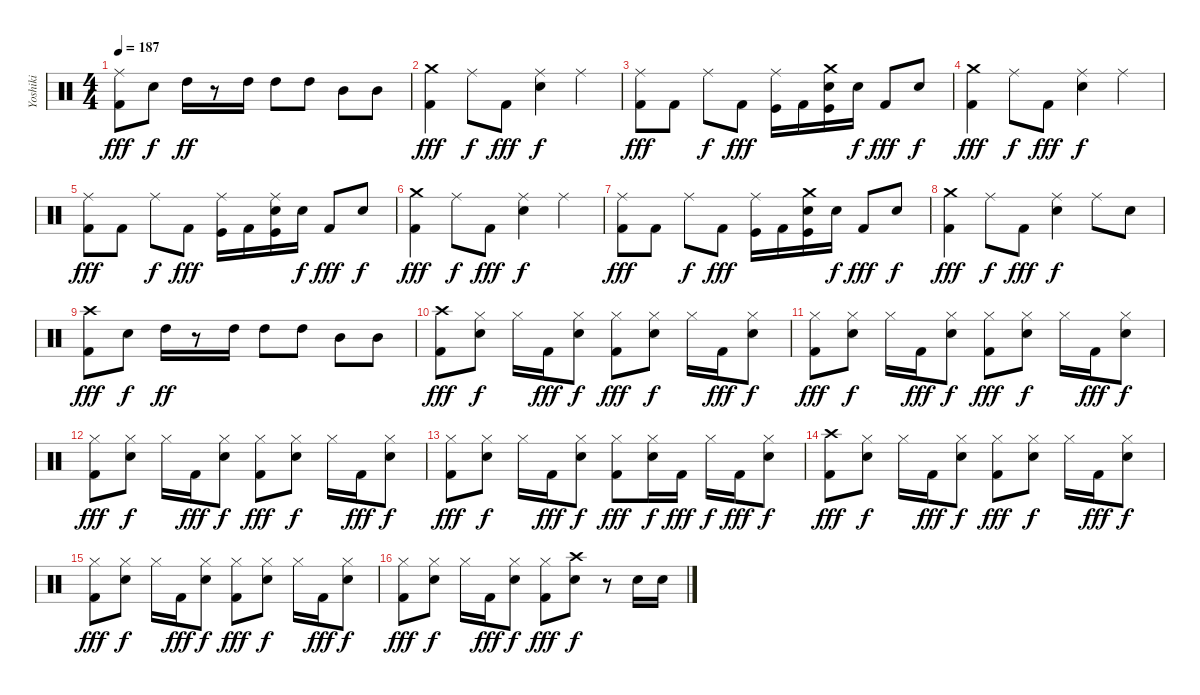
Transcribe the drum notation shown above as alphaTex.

\track ("Yoshiki" "Yoshiki") {instrument percussion}
\staff {score}
\articulation defaults
\ts (4 4)
\tempo 187
\clef neutral
\ks c
("Ride (middle)" "Kick (hit) 2").8{dy fff} "Electric Snare (hit)".8{dy f} "High Tom (hit)".16{dy ff} r.8 "High Tom (hit)".16 "High Tom (hit)".8 "High Tom (hit)".8 "Mid Tom (hit)".8 "Mid Tom (hit)".8 |
("Crash medium (hit)" "Kick (hit) 2").4{dy fff} "Ride (middle)".8{dy f} "Kick (hit) 2".8{dy fff} ("Ride (middle)" "Electric Snare (hit)").4{dy f} "Ride (middle)".4 |
("Ride (middle)" "Kick (hit) 2").8{dy fff} "Kick (hit) 2".8 "Ride (middle)".8{dy f} "Kick (hit) 2".8{dy fff} ("Ride (middle)" "Kick (hit)").16 "Kick (hit) 2".16 ("Crash medium (hit)" "Electric Snare (hit)" "Kick (hit)").16 "Electric Snare (hit)".16{dy f} "Kick (hit) 2".8{dy fff} "Electric Snare (hit)".8{dy f} |
("Crash medium (hit)" "Kick (hit) 2").4{dy fff} "Ride (middle)".8{dy f} "Kick (hit) 2".8{dy fff} ("Ride (middle)" "Electric Snare (hit)").4{dy f} "Ride (middle)".4 |
("Ride (middle)" "Kick (hit) 2").8{dy fff} "Kick (hit) 2".8 "Ride (middle)".8{dy f} "Kick (hit) 2".8{dy fff} ("Ride (middle)" "Kick (hit)").16 "Kick (hit) 2".16 ("Ride (middle)" "Electric Snare (hit)" "Kick (hit)").16 "Electric Snare (hit)".16{dy f} "Kick (hit) 2".8{dy fff} "Electric Snare (hit)".8{dy f} |
("Crash medium (hit)" "Kick (hit) 2").4{dy fff} "Ride (middle)".8{dy f} "Kick (hit) 2".8{dy fff} ("Ride (middle)" "Electric Snare (hit)").4{dy f} "Ride (middle)".4 |
("Ride (middle)" "Kick (hit) 2").8{dy fff} "Kick (hit) 2".8 "Ride (middle)".8{dy f} "Kick (hit) 2".8{dy fff} ("Ride (middle)" "Kick (hit)").16 "Kick (hit) 2".16 ("Crash medium (hit)" "Electric Snare (hit)" "Kick (hit)").16 "Electric Snare (hit)".16{dy f} "Kick (hit) 2".8{dy fff} "Electric Snare (hit)".8{dy f} |
("Crash medium (hit)" "Kick (hit) 2").4{dy fff} "Ride (middle)".8{dy f} "Kick (hit) 2".8{dy fff} ("Ride (middle)" "Electric Snare (hit)").4{dy f} "Ride (middle)".8 "Electric Snare (hit)".8 |
("Crash high (hit)" "Kick (hit) 2").8{dy fff} "Electric Snare (hit)".8{dy f} "High Tom (hit)".16{dy ff} r.8 "High Tom (hit)".16 "High Tom (hit)".8 "High Tom (hit)".8 "Mid Tom (hit)".8 "Mid Tom (hit)".8 |
("Crash high (hit)" "Kick (hit) 2").8{dy fff} ("Hi-Hat (closed)" "Electric Snare (hit)").8{dy f} "Hi-Hat (closed)".16 "Kick (hit) 2".16{dy fff} ("Hi-Hat (closed)" "Electric Snare (hit)").8{dy f} ("Hi-Hat (closed)" "Kick (hit) 2").8{dy fff} ("Hi-Hat (closed)" "Electric Snare (hit)").8{dy f} "Hi-Hat (closed)".16 "Kick (hit) 2".16{dy fff} ("Hi-Hat (closed)" "Electric Snare (hit)").8{dy f} |
("Hi-Hat (closed)" "Kick (hit) 2").8{dy fff} ("Hi-Hat (closed)" "Electric Snare (hit)").8{dy f} "Hi-Hat (closed)".16 "Kick (hit) 2".16{dy fff} ("Hi-Hat (closed)" "Electric Snare (hit)").8{dy f} ("Hi-Hat (closed)" "Kick (hit) 2").8{dy fff} ("Hi-Hat (closed)" "Electric Snare (hit)").8{dy f} "Hi-Hat (closed)".16 "Kick (hit) 2".16{dy fff} ("Hi-Hat (closed)" "Electric Snare (hit)").8{dy f} |
("Hi-Hat (closed)" "Kick (hit) 2").8{dy fff} ("Hi-Hat (closed)" "Electric Snare (hit)").8{dy f} "Hi-Hat (closed)".16 "Kick (hit) 2".16{dy fff} ("Hi-Hat (closed)" "Electric Snare (hit)").8{dy f} ("Hi-Hat (closed)" "Kick (hit) 2").8{dy fff} ("Hi-Hat (closed)" "Electric Snare (hit)").8{dy f} "Hi-Hat (closed)".16 "Kick (hit) 2".16{dy fff} ("Hi-Hat (closed)" "Electric Snare (hit)").8{dy f} |
("Hi-Hat (closed)" "Kick (hit) 2").8{dy fff} ("Hi-Hat (closed)" "Electric Snare (hit)").8{dy f} "Hi-Hat (closed)".16 "Kick (hit) 2".16{dy fff} ("Hi-Hat (closed)" "Electric Snare (hit)").8{dy f} ("Hi-Hat (closed)" "Kick (hit) 2").8{dy fff} ("Hi-Hat (closed)" "Electric Snare (hit)").16{dy f} "Kick (hit) 2".16{dy fff} "Hi-Hat (closed)".16{dy f} "Kick (hit) 2".16{dy fff} ("Hi-Hat (closed)" "Electric Snare (hit)").8{dy f} |
("Crash high (hit)" "Kick (hit) 2").8{dy fff} ("Hi-Hat (closed)" "Electric Snare (hit)").8{dy f} "Hi-Hat (closed)".16 "Kick (hit) 2".16{dy fff} ("Hi-Hat (closed)" "Electric Snare (hit)").8{dy f} ("Hi-Hat (closed)" "Kick (hit) 2").8{dy fff} ("Hi-Hat (closed)" "Electric Snare (hit)").8{dy f} "Hi-Hat (closed)".16 "Kick (hit) 2".16{dy fff} ("Hi-Hat (closed)" "Electric Snare (hit)").8{dy f} |
("Hi-Hat (closed)" "Kick (hit) 2").8{dy fff} ("Hi-Hat (closed)" "Electric Snare (hit)").8{dy f} "Hi-Hat (closed)".16 "Kick (hit) 2".16{dy fff} ("Hi-Hat (closed)" "Electric Snare (hit)").8{dy f} ("Hi-Hat (closed)" "Kick (hit) 2").8{dy fff} ("Hi-Hat (closed)" "Electric Snare (hit)").8{dy f} "Hi-Hat (closed)".16 "Kick (hit) 2".16{dy fff} ("Hi-Hat (closed)" "Electric Snare (hit)").8{dy f} |
("Hi-Hat (closed)" "Kick (hit) 2").8{dy fff} ("Hi-Hat (closed)" "Electric Snare (hit)").8{dy f} "Hi-Hat (closed)".16 "Kick (hit) 2".16{dy fff} ("Hi-Hat (closed)" "Electric Snare (hit)").8{dy f} ("Hi-Hat (closed)" "Kick (hit) 2").8{dy fff} ("Crash high (hit)" "Electric Snare (hit)").8{dy f} r.8 "Electric Snare (hit)".16 "Electric Snare (hit)".16
